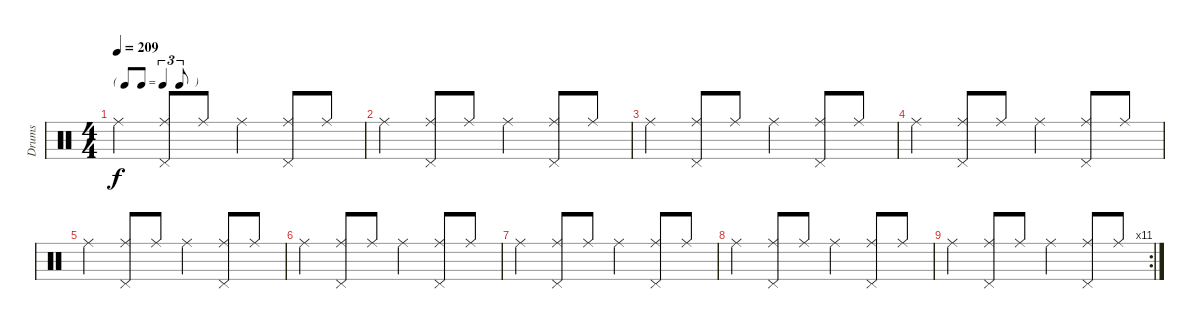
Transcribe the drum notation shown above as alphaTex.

\track ("Drums" "Drums") {instrument percussion}
\staff {score}
\articulation defaults
\ts (4 4)
\tf triplet8th
\tempo 209
\clef neutral
\ks c "Ride (middle)".4{dy f}
("Ride (middle)" "Pedal Hi-Hat (hit)").8 "Ride (middle)".8 "Ride (middle)".4 ("Ride (middle)" "Pedal Hi-Hat (hit)").8 "Ride (middle)".8 |
"Ride (middle)".4 ("Ride (middle)" "Pedal Hi-Hat (hit)").8 "Ride (middle)".8 "Ride (middle)".4 ("Ride (middle)" "Pedal Hi-Hat (hit)").8 "Ride (middle)".8 |
"Ride (middle)".4 ("Ride (middle)" "Pedal Hi-Hat (hit)").8 "Ride (middle)".8 "Ride (middle)".4 ("Ride (middle)" "Pedal Hi-Hat (hit)").8 "Ride (middle)".8 |
"Ride (middle)".4 ("Ride (middle)" "Pedal Hi-Hat (hit)").8 "Ride (middle)".8 "Ride (middle)".4 ("Ride (middle)" "Pedal Hi-Hat (hit)").8 "Ride (middle)".8 |
"Ride (middle)".4 ("Ride (middle)" "Pedal Hi-Hat (hit)").8 "Ride (middle)".8 "Ride (middle)".4 ("Ride (middle)" "Pedal Hi-Hat (hit)").8 "Ride (middle)".8 |
"Ride (middle)".4 ("Ride (middle)" "Pedal Hi-Hat (hit)").8 "Ride (middle)".8 "Ride (middle)".4 ("Ride (middle)" "Pedal Hi-Hat (hit)").8 "Ride (middle)".8 |
"Ride (middle)".4 ("Ride (middle)" "Pedal Hi-Hat (hit)").8 "Ride (middle)".8 "Ride (middle)".4 ("Ride (middle)" "Pedal Hi-Hat (hit)").8 "Ride (middle)".8 |
"Ride (middle)".4 ("Ride (middle)" "Pedal Hi-Hat (hit)").8 "Ride (middle)".8 "Ride (middle)".4 ("Ride (middle)" "Pedal Hi-Hat (hit)").8 "Ride (middle)".8 |
\rc 11 "Ride (middle)".4
("Ride (middle)" "Pedal Hi-Hat (hit)").8 "Ride (middle)".8 "Ride (middle)".4 ("Ride (middle)" "Pedal Hi-Hat (hit)").8 "Ride (middle)".8
